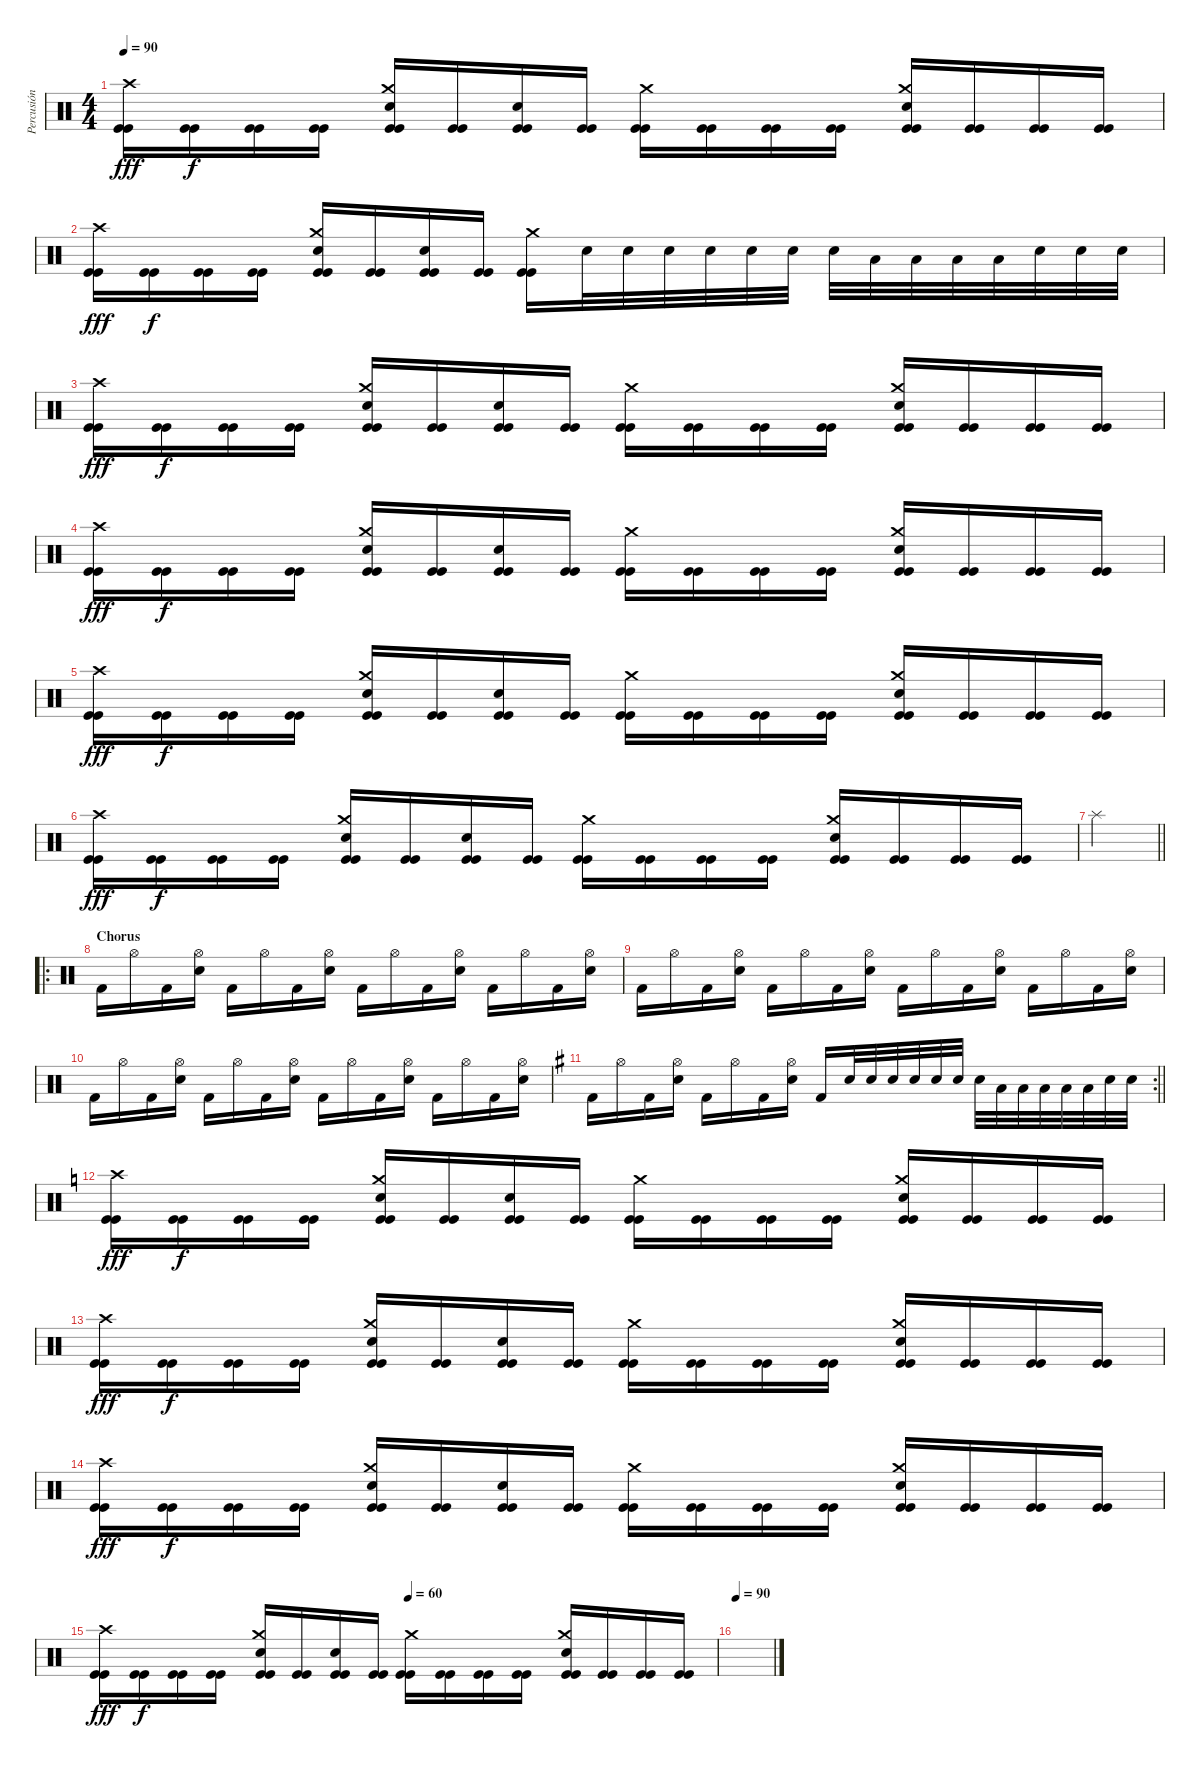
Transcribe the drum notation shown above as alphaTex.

\track ("Percusión" "Percusión") {instrument percussion}
\staff {score}
\articulation defaults
\ts (4 4)
\tempo 90
\clef neutral
\ks c
("Crash high (hit)" "Kick (hit)" "Kick (hit)").16{dy fff} ("Kick (hit)" "Kick (hit)").16{dy f} ("Kick (hit)" "Kick (hit)").16 ("Kick (hit)" "Kick (hit)").16 ("Crash medium (hit)" "Electric Snare (hit)" "Kick (hit)" "Kick (hit)").16 ("Kick (hit)" "Kick (hit)").16 ("Electric Snare (hit)" "Kick (hit)" "Kick (hit)").16 ("Kick (hit)" "Kick (hit)").16 ("Crash medium (hit)" "Kick (hit)" "Kick (hit)").16 ("Kick (hit)" "Kick (hit)").16 ("Kick (hit)" "Kick (hit)").16 ("Kick (hit)" "Kick (hit)").16 ("Crash medium (hit)" "Electric Snare (hit)" "Kick (hit)" "Kick (hit)").16 ("Kick (hit)" "Kick (hit)").16 ("Kick (hit)" "Kick (hit)").16 ("Kick (hit)" "Kick (hit)").16 |
("Crash high (hit)" "Kick (hit)" "Kick (hit)").16{dy fff} ("Kick (hit)" "Kick (hit)").16{dy f} ("Kick (hit)" "Kick (hit)").16 ("Kick (hit)" "Kick (hit)").16 ("Crash medium (hit)" "Electric Snare (hit)" "Kick (hit)" "Kick (hit)").16 ("Kick (hit)" "Kick (hit)").16 ("Electric Snare (hit)" "Kick (hit)" "Kick (hit)").16 ("Kick (hit)" "Kick (hit)").16 ("Crash medium (hit)" "Kick (hit)" "Kick (hit)").16 "Electric Snare (hit)".32 "Electric Snare (hit)".32 "Electric Snare (hit)".32 "Electric Snare (hit)".32 "Electric Snare (hit)".32 "Electric Snare (hit)".32 "Electric Snare (hit)".32 "Low Tom (hit)".32 "Low Tom (hit)".32 "Low Tom (hit)".32 "Low Tom (hit)".32 "Electric Snare (hit)".32 "Electric Snare (hit)".32 "Electric Snare (hit)".32 |
("Crash high (hit)" "Kick (hit)" "Kick (hit)").16{dy fff} ("Kick (hit)" "Kick (hit)").16{dy f} ("Kick (hit)" "Kick (hit)").16 ("Kick (hit)" "Kick (hit)").16 ("Crash medium (hit)" "Electric Snare (hit)" "Kick (hit)" "Kick (hit)").16 ("Kick (hit)" "Kick (hit)").16 ("Electric Snare (hit)" "Kick (hit)" "Kick (hit)").16 ("Kick (hit)" "Kick (hit)").16 ("Crash medium (hit)" "Kick (hit)" "Kick (hit)").16 ("Kick (hit)" "Kick (hit)").16 ("Kick (hit)" "Kick (hit)").16 ("Kick (hit)" "Kick (hit)").16 ("Crash medium (hit)" "Electric Snare (hit)" "Kick (hit)" "Kick (hit)").16 ("Kick (hit)" "Kick (hit)").16 ("Kick (hit)" "Kick (hit)").16 ("Kick (hit)" "Kick (hit)").16 |
("Crash high (hit)" "Kick (hit)" "Kick (hit)").16{dy fff} ("Kick (hit)" "Kick (hit)").16{dy f} ("Kick (hit)" "Kick (hit)").16 ("Kick (hit)" "Kick (hit)").16 ("Crash medium (hit)" "Electric Snare (hit)" "Kick (hit)" "Kick (hit)").16 ("Kick (hit)" "Kick (hit)").16 ("Electric Snare (hit)" "Kick (hit)" "Kick (hit)").16 ("Kick (hit)" "Kick (hit)").16 ("Crash medium (hit)" "Kick (hit)" "Kick (hit)").16 ("Kick (hit)" "Kick (hit)").16 ("Kick (hit)" "Kick (hit)").16 ("Kick (hit)" "Kick (hit)").16 ("Crash medium (hit)" "Electric Snare (hit)" "Kick (hit)" "Kick (hit)").16 ("Kick (hit)" "Kick (hit)").16 ("Kick (hit)" "Kick (hit)").16 ("Kick (hit)" "Kick (hit)").16 |
("Crash high (hit)" "Kick (hit)" "Kick (hit)").16{dy fff} ("Kick (hit)" "Kick (hit)").16{dy f} ("Kick (hit)" "Kick (hit)").16 ("Kick (hit)" "Kick (hit)").16 ("Crash medium (hit)" "Electric Snare (hit)" "Kick (hit)" "Kick (hit)").16 ("Kick (hit)" "Kick (hit)").16 ("Electric Snare (hit)" "Kick (hit)" "Kick (hit)").16 ("Kick (hit)" "Kick (hit)").16 ("Crash medium (hit)" "Kick (hit)" "Kick (hit)").16 ("Kick (hit)" "Kick (hit)").16 ("Kick (hit)" "Kick (hit)").16 ("Kick (hit)" "Kick (hit)").16 ("Crash medium (hit)" "Electric Snare (hit)" "Kick (hit)" "Kick (hit)").16 ("Kick (hit)" "Kick (hit)").16 ("Kick (hit)" "Kick (hit)").16 ("Kick (hit)" "Kick (hit)").16 |
("Crash high (hit)" "Kick (hit)" "Kick (hit)").16{dy fff} ("Kick (hit)" "Kick (hit)").16{dy f} ("Kick (hit)" "Kick (hit)").16 ("Kick (hit)" "Kick (hit)").16 ("Crash medium (hit)" "Electric Snare (hit)" "Kick (hit)" "Kick (hit)").16 ("Kick (hit)" "Kick (hit)").16 ("Electric Snare (hit)" "Kick (hit)" "Kick (hit)").16 ("Kick (hit)" "Kick (hit)").16 ("Crash medium (hit)" "Kick (hit)" "Kick (hit)").16 ("Kick (hit)" "Kick (hit)").16 ("Kick (hit)" "Kick (hit)").16 ("Kick (hit)" "Kick (hit)").16 ("Crash medium (hit)" "Electric Snare (hit)" "Kick (hit)" "Kick (hit)").16 ("Kick (hit)" "Kick (hit)").16 ("Kick (hit)" "Kick (hit)").16 ("Kick (hit)" "Kick (hit)").16 |
\barLineRight lightlight "Splash (hit)".4
|
\ro
\section ("" "Chorus")
"Kick (hit) 2".16 "Hi-Hat (open)".16 "Kick (hit) 2".16 ("Hi-Hat (open)" "Electric Snare (hit)").16 "Kick (hit) 2".16 "Hi-Hat (open)".16 "Kick (hit) 2".16 ("Hi-Hat (open)" "Electric Snare (hit)").16 "Kick (hit) 2".16 "Hi-Hat (open)".16 "Kick (hit) 2".16 ("Hi-Hat (open)" "Electric Snare (hit)").16 "Kick (hit) 2".16 "Hi-Hat (open)".16 "Kick (hit) 2".16 ("Hi-Hat (open)" "Electric Snare (hit)").16 |
"Kick (hit) 2".16 "Hi-Hat (open)".16 "Kick (hit) 2".16 ("Hi-Hat (open)" "Electric Snare (hit)").16 "Kick (hit) 2".16 "Hi-Hat (open)".16 "Kick (hit) 2".16 ("Hi-Hat (open)" "Electric Snare (hit)").16 "Kick (hit) 2".16 "Hi-Hat (open)".16 "Kick (hit) 2".16 ("Hi-Hat (open)" "Electric Snare (hit)").16 "Kick (hit) 2".16 "Hi-Hat (open)".16 "Kick (hit) 2".16 ("Hi-Hat (open)" "Electric Snare (hit)").16 |
"Kick (hit) 2".16 "Hi-Hat (open)".16 "Kick (hit) 2".16 ("Hi-Hat (open)" "Electric Snare (hit)").16 "Kick (hit) 2".16 "Hi-Hat (open)".16 "Kick (hit) 2".16 ("Hi-Hat (open)" "Electric Snare (hit)").16 "Kick (hit) 2".16 "Hi-Hat (open)".16 "Kick (hit) 2".16 ("Hi-Hat (open)" "Electric Snare (hit)").16 "Kick (hit) 2".16 "Hi-Hat (open)".16 "Kick (hit) 2".16 ("Hi-Hat (open)" "Electric Snare (hit)").16 |
\rc 2
\barLineRight lightlight
\ks g "Kick (hit) 2".16 "Hi-Hat (open)".16 "Kick (hit) 2".16
("Hi-Hat (open)" "Electric Snare (hit)").16 "Kick (hit) 2".16 "Hi-Hat (open)".16 "Kick (hit) 2".16 ("Hi-Hat (open)" "Electric Snare (hit)").16 "Kick (hit) 2".16 "Electric Snare (hit)".32 "Electric Snare (hit)".32 "Electric Snare (hit)".32 "Electric Snare (hit)".32 "Electric Snare (hit)".32 "Electric Snare (hit)".32 "Electric Snare (hit)".32 "Low Tom (hit)".32 "Low Tom (hit)".32 "Low Tom (hit)".32 "Low Tom (hit)".32 "Low Tom (hit)".32 "Electric Snare (hit)".32 "Electric Snare (hit)".32 |
\ks c
("Crash high (hit)" "Kick (hit)" "Kick (hit)").16{dy fff} ("Kick (hit)" "Kick (hit)").16{dy f} ("Kick (hit)" "Kick (hit)").16 ("Kick (hit)" "Kick (hit)").16 ("Crash medium (hit)" "Electric Snare (hit)" "Kick (hit)" "Kick (hit)").16 ("Kick (hit)" "Kick (hit)").16 ("Electric Snare (hit)" "Kick (hit)" "Kick (hit)").16 ("Kick (hit)" "Kick (hit)").16 ("Crash medium (hit)" "Kick (hit)" "Kick (hit)").16 ("Kick (hit)" "Kick (hit)").16 ("Kick (hit)" "Kick (hit)").16 ("Kick (hit)" "Kick (hit)").16 ("Crash medium (hit)" "Electric Snare (hit)" "Kick (hit)" "Kick (hit)").16 ("Kick (hit)" "Kick (hit)").16 ("Kick (hit)" "Kick (hit)").16 ("Kick (hit)" "Kick (hit)").16 |
("Crash high (hit)" "Kick (hit)" "Kick (hit)").16{dy fff} ("Kick (hit)" "Kick (hit)").16{dy f} ("Kick (hit)" "Kick (hit)").16 ("Kick (hit)" "Kick (hit)").16 ("Crash medium (hit)" "Electric Snare (hit)" "Kick (hit)" "Kick (hit)").16 ("Kick (hit)" "Kick (hit)").16 ("Electric Snare (hit)" "Kick (hit)" "Kick (hit)").16 ("Kick (hit)" "Kick (hit)").16 ("Crash medium (hit)" "Kick (hit)" "Kick (hit)").16 ("Kick (hit)" "Kick (hit)").16 ("Kick (hit)" "Kick (hit)").16 ("Kick (hit)" "Kick (hit)").16 ("Crash medium (hit)" "Electric Snare (hit)" "Kick (hit)" "Kick (hit)").16 ("Kick (hit)" "Kick (hit)").16 ("Kick (hit)" "Kick (hit)").16 ("Kick (hit)" "Kick (hit)").16 |
("Crash high (hit)" "Kick (hit)" "Kick (hit)").16{dy fff} ("Kick (hit)" "Kick (hit)").16{dy f} ("Kick (hit)" "Kick (hit)").16 ("Kick (hit)" "Kick (hit)").16 ("Crash medium (hit)" "Electric Snare (hit)" "Kick (hit)" "Kick (hit)").16 ("Kick (hit)" "Kick (hit)").16 ("Electric Snare (hit)" "Kick (hit)" "Kick (hit)").16 ("Kick (hit)" "Kick (hit)").16 ("Crash medium (hit)" "Kick (hit)" "Kick (hit)").16 ("Kick (hit)" "Kick (hit)").16 ("Kick (hit)" "Kick (hit)").16 ("Kick (hit)" "Kick (hit)").16 ("Crash medium (hit)" "Electric Snare (hit)" "Kick (hit)" "Kick (hit)").16 ("Kick (hit)" "Kick (hit)").16 ("Kick (hit)" "Kick (hit)").16 ("Kick (hit)" "Kick (hit)").16 |
\tempo (60 0.5)
("Crash high (hit)" "Kick (hit)" "Kick (hit)").16{dy fff} ("Kick (hit)" "Kick (hit)").16{dy f} ("Kick (hit)" "Kick (hit)").16 ("Kick (hit)" "Kick (hit)").16 ("Crash medium (hit)" "Electric Snare (hit)" "Kick (hit)" "Kick (hit)").16 ("Kick (hit)" "Kick (hit)").16 ("Electric Snare (hit)" "Kick (hit)" "Kick (hit)").16 ("Kick (hit)" "Kick (hit)").16 ("Crash medium (hit)" "Kick (hit)" "Kick (hit)").16 ("Kick (hit)" "Kick (hit)").16 ("Kick (hit)" "Kick (hit)").16 ("Kick (hit)" "Kick (hit)").16 ("Crash medium (hit)" "Electric Snare (hit)" "Kick (hit)" "Kick (hit)").16 ("Kick (hit)" "Kick (hit)").16 ("Kick (hit)" "Kick (hit)").16 ("Kick (hit)" "Kick (hit)").16 |
\tempo 90
